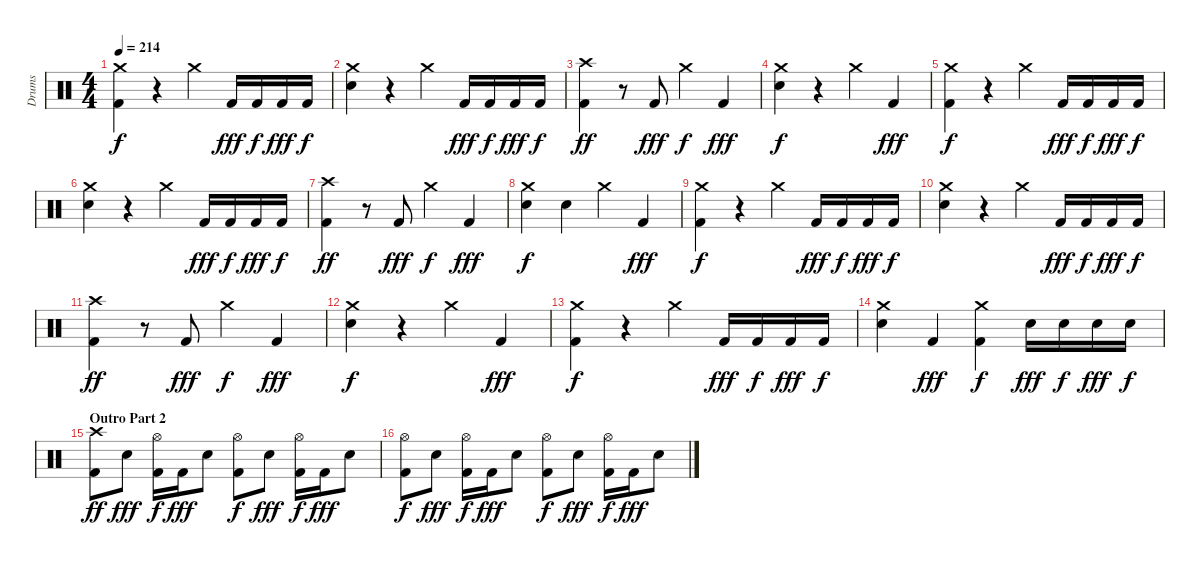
\track ("Drums" "Drums") {instrument percussion}
\staff {score}
\articulation defaults
\ts (4 4)
\tempo 214
\clef neutral
\ks c
("Crash medium (hit)" "Kick (hit) 2").4{dy f} r.4 "Crash medium (hit)".4 "Kick (hit) 2".16{dy fff} "Kick (hit) 2".16{dy f} "Kick (hit) 2".16{dy fff} "Kick (hit) 2".16{dy f} |
("Crash medium (hit)" "Snare (hit) 2").4 r.4 "Crash medium (hit)".4 "Kick (hit) 2".16{dy fff} "Kick (hit) 2".16{dy f} "Kick (hit) 2".16{dy fff} "Kick (hit) 2".16{dy f} |
("Crash high (hit)" "Kick (hit) 2").4{dy ff} r.8 "Kick (hit) 2".8{dy fff} "Crash medium (hit)".4{dy f} "Kick (hit) 2".4{dy fff} |
("Crash medium (hit)" "Snare (hit) 2").4{dy f} r.4 "Crash medium (hit)".4 "Kick (hit) 2".4{dy fff} |
("Crash medium (hit)" "Kick (hit) 2").4{dy f} r.4 "Crash medium (hit)".4 "Kick (hit) 2".16{dy fff} "Kick (hit) 2".16{dy f} "Kick (hit) 2".16{dy fff} "Kick (hit) 2".16{dy f} |
("Crash medium (hit)" "Snare (hit) 2").4 r.4 "Crash medium (hit)".4 "Kick (hit) 2".16{dy fff} "Kick (hit) 2".16{dy f} "Kick (hit) 2".16{dy fff} "Kick (hit) 2".16{dy f} |
("Crash high (hit)" "Kick (hit) 2").4{dy ff} r.8 "Kick (hit) 2".8{dy fff} "Crash medium (hit)".4{dy f} "Kick (hit) 2".4{dy fff} |
("Crash medium (hit)" "Snare (hit) 2").4{dy f} "Snare (hit) 2".4 "Crash medium (hit)".4 "Kick (hit) 2".4{dy fff} |
("Crash medium (hit)" "Kick (hit) 2").4{dy f} r.4 "Crash medium (hit)".4 "Kick (hit) 2".16{dy fff} "Kick (hit) 2".16{dy f} "Kick (hit) 2".16{dy fff} "Kick (hit) 2".16{dy f} |
("Crash medium (hit)" "Snare (hit) 2").4 r.4 "Crash medium (hit)".4 "Kick (hit) 2".16{dy fff} "Kick (hit) 2".16{dy f} "Kick (hit) 2".16{dy fff} "Kick (hit) 2".16{dy f} |
("Crash high (hit)" "Kick (hit) 2").4{dy ff} r.8 "Kick (hit) 2".8{dy fff} "Crash medium (hit)".4{dy f} "Kick (hit) 2".4{dy fff} |
("Crash medium (hit)" "Snare (hit) 2").4{dy f} r.4 "Crash medium (hit)".4 "Kick (hit) 2".4{dy fff} |
("Crash medium (hit)" "Kick (hit) 2").4{dy f} r.4 "Crash medium (hit)".4 "Kick (hit) 2".16{dy fff} "Kick (hit) 2".16{dy f} "Kick (hit) 2".16{dy fff} "Kick (hit) 2".16{dy f} |
("Crash medium (hit)" "Snare (hit) 2").4 "Kick (hit) 2".4{dy fff} ("Crash medium (hit)" "Kick (hit) 2").4{dy f} "Snare (hit) 2".16{dy fff} "Snare (hit) 2".16{dy f} "Snare (hit) 2".16{dy fff} "Snare (hit) 2".16{dy f} |
\section ("" "Outro Part 2")
("Crash high (hit)" "Kick (hit) 2").8{dy ff} "Snare (hit) 2".8{dy fff} ("Hi-Hat (open)" "Kick (hit) 2").16{dy f} "Kick (hit) 2".16{dy fff} "Snare (hit) 2".8 ("Hi-Hat (open)" "Kick (hit) 2").8{dy f} "Snare (hit) 2".8{dy fff} ("Hi-Hat (open)" "Kick (hit) 2").16{dy f} "Kick (hit) 2".16{dy fff} "Snare (hit) 2".8 |
("Hi-Hat (open)" "Kick (hit) 2").8{dy f} "Snare (hit) 2".8{dy fff} ("Hi-Hat (open)" "Kick (hit) 2").16{dy f} "Kick (hit) 2".16{dy fff} "Snare (hit) 2".8 ("Hi-Hat (open)" "Kick (hit) 2").8{dy f} "Snare (hit) 2".8{dy fff} ("Hi-Hat (open)" "Kick (hit) 2").16{dy f} "Kick (hit) 2".16{dy fff} "Snare (hit) 2".8
